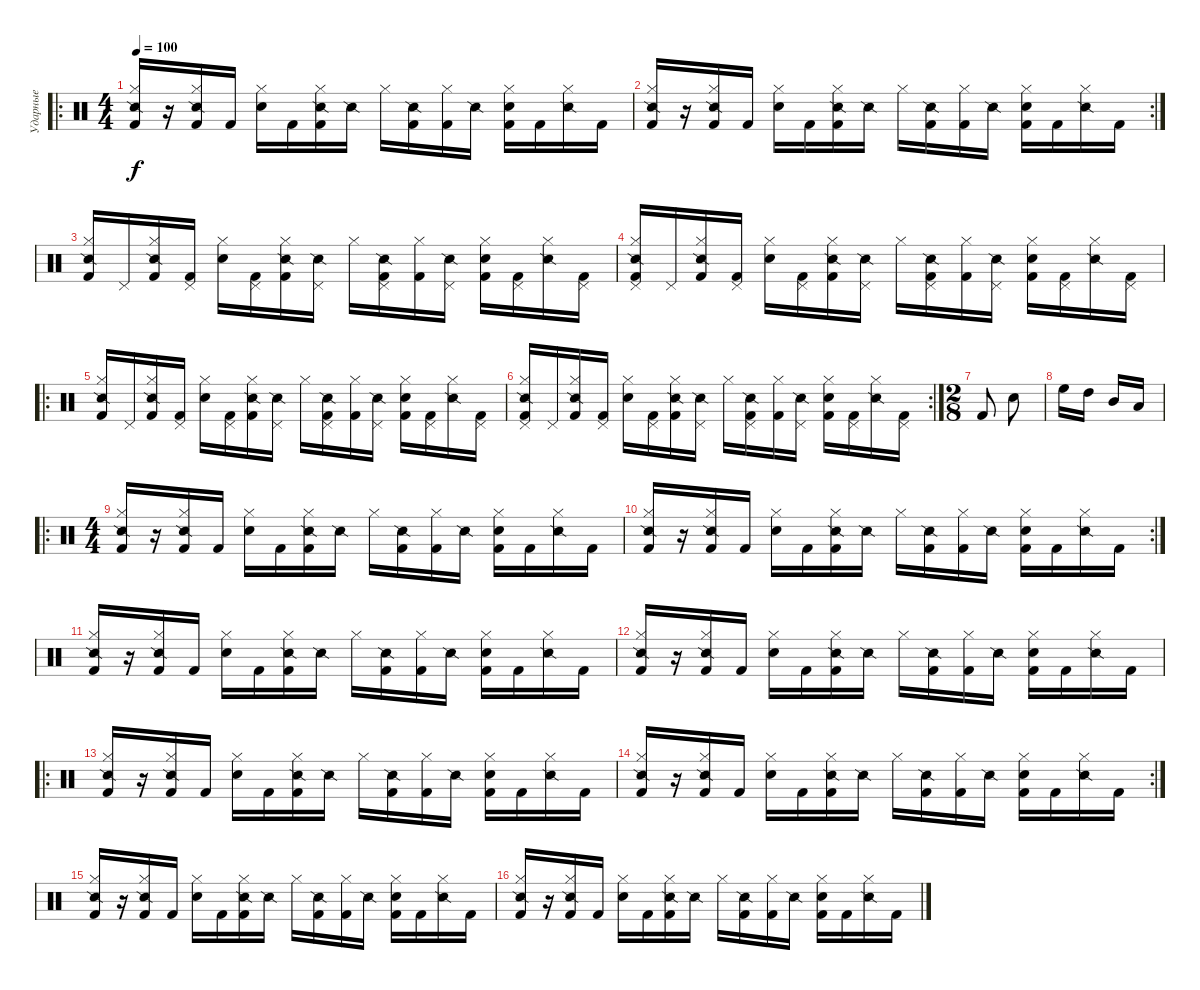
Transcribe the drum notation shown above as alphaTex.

\track ("Ударные" "Ударные") {instrument percussion}
\staff {score}
\articulation defaults
\ro
\ts (4 4)
\tempo 100
\clef neutral
\ks c
("Kick (hit) 2" "Hi-Hat (closed)" "Snare (side stick) 2").16{dy f} r.16 ("Kick (hit) 2" "Hi-Hat (closed)" "Snare (side stick) 2").16 "Kick (hit) 2".16 ("Snare (hit) 2" "Hi-Hat (closed)").16 "Kick (hit) 2".16 ("Kick (hit) 2" "Hi-Hat (closed)" "Snare (side stick) 2").16 "Snare (side stick) 2".16 "Hi-Hat (closed)".16 ("Kick (hit) 2" "Snare (side stick) 2").16 ("Kick (hit) 2" "Hi-Hat (closed)").16 "Snare (side stick) 2".16 ("Kick (hit) 2" "Snare (hit) 2" "Hi-Hat (closed)").16 "Kick (hit) 2".16 ("Hi-Hat (closed)" "Snare (side stick) 2").16 "Kick (hit) 2".16 |
\rc 2
("Kick (hit) 2" "Hi-Hat (closed)" "Snare (side stick) 2").16 r.16 ("Kick (hit) 2" "Hi-Hat (closed)" "Snare (side stick) 2").16 "Kick (hit) 2".16 ("Snare (hit) 2" "Hi-Hat (closed)").16 "Kick (hit) 2".16 ("Kick (hit) 2" "Hi-Hat (closed)" "Snare (side stick) 2").16 "Snare (side stick) 2".16 "Hi-Hat (closed)".16 ("Kick (hit) 2" "Snare (side stick) 2").16 ("Kick (hit) 2" "Hi-Hat (closed)").16 "Snare (side stick) 2".16 ("Kick (hit) 2" "Snare (hit) 2" "Hi-Hat (closed)").16 "Kick (hit) 2".16 ("Hi-Hat (closed)" "Snare (side stick) 2").16 "Kick (hit) 2".16 |
("Kick (hit) 2" "Hi-Hat (closed)" "Snare (side stick) 2").16 "Pedal Hi-Hat (hit)".16 ("Kick (hit) 2" "Hi-Hat (closed)" "Snare (side stick) 2").16 ("Kick (hit) 2" "Pedal Hi-Hat (hit)").16 ("Snare (hit) 2" "Hi-Hat (closed)").16 ("Kick (hit) 2" "Pedal Hi-Hat (hit)").16 ("Kick (hit) 2" "Hi-Hat (closed)" "Snare (side stick) 2").16 ("Pedal Hi-Hat (hit)" "Snare (side stick) 2").16 "Hi-Hat (closed)".16 ("Kick (hit) 2" "Pedal Hi-Hat (hit)" "Snare (side stick) 2").16 ("Kick (hit) 2" "Hi-Hat (closed)").16 ("Pedal Hi-Hat (hit)" "Snare (side stick) 2").16 ("Kick (hit) 2" "Snare (hit) 2" "Hi-Hat (closed)").16 ("Kick (hit) 2" "Pedal Hi-Hat (hit)").16 ("Hi-Hat (closed)" "Snare (side stick) 2").16 ("Kick (hit) 2" "Pedal Hi-Hat (hit)").16 |
("Kick (hit) 2" "Hi-Hat (closed)" "Snare (side stick) 2" "Pedal Hi-Hat (hit)").16 "Pedal Hi-Hat (hit)".16 ("Kick (hit) 2" "Hi-Hat (closed)" "Snare (side stick) 2").16 ("Kick (hit) 2" "Pedal Hi-Hat (hit)").16 ("Snare (hit) 2" "Hi-Hat (closed)").16 ("Kick (hit) 2" "Pedal Hi-Hat (hit)").16 ("Kick (hit) 2" "Hi-Hat (closed)" "Snare (side stick) 2").16 ("Pedal Hi-Hat (hit)" "Snare (side stick) 2").16 "Hi-Hat (closed)".16 ("Kick (hit) 2" "Pedal Hi-Hat (hit)" "Snare (side stick) 2").16 ("Kick (hit) 2" "Hi-Hat (closed)").16 ("Pedal Hi-Hat (hit)" "Snare (side stick) 2").16 ("Kick (hit) 2" "Snare (hit) 2" "Hi-Hat (closed)").16 ("Kick (hit) 2" "Pedal Hi-Hat (hit)").16 ("Hi-Hat (closed)" "Snare (side stick) 2").16 ("Kick (hit) 2" "Pedal Hi-Hat (hit)").16 |
\ro
("Kick (hit) 2" "Hi-Hat (closed)" "Snare (side stick) 2").16 "Pedal Hi-Hat (hit)".16 ("Kick (hit) 2" "Hi-Hat (closed)" "Snare (side stick) 2").16 ("Kick (hit) 2" "Pedal Hi-Hat (hit)").16 ("Snare (hit) 2" "Hi-Hat (closed)").16 ("Kick (hit) 2" "Pedal Hi-Hat (hit)").16 ("Kick (hit) 2" "Hi-Hat (closed)" "Snare (side stick) 2").16 ("Pedal Hi-Hat (hit)" "Snare (side stick) 2").16 "Hi-Hat (closed)".16 ("Kick (hit) 2" "Pedal Hi-Hat (hit)" "Snare (side stick) 2").16 ("Kick (hit) 2" "Hi-Hat (closed)").16 ("Pedal Hi-Hat (hit)" "Snare (side stick) 2").16 ("Kick (hit) 2" "Snare (hit) 2" "Hi-Hat (closed)").16 ("Kick (hit) 2" "Pedal Hi-Hat (hit)").16 ("Hi-Hat (closed)" "Snare (side stick) 2").16 ("Kick (hit) 2" "Pedal Hi-Hat (hit)").16 |
\rc 2
("Kick (hit) 2" "Hi-Hat (closed)" "Snare (side stick) 2" "Pedal Hi-Hat (hit)").16 "Pedal Hi-Hat (hit)".16 ("Kick (hit) 2" "Hi-Hat (closed)" "Snare (side stick) 2").16 ("Kick (hit) 2" "Pedal Hi-Hat (hit)").16 ("Snare (hit) 2" "Hi-Hat (closed)").16 ("Kick (hit) 2" "Pedal Hi-Hat (hit)").16 ("Kick (hit) 2" "Hi-Hat (closed)" "Snare (side stick) 2").16 ("Pedal Hi-Hat (hit)" "Snare (side stick) 2").16 "Hi-Hat (closed)".16 ("Kick (hit) 2" "Pedal Hi-Hat (hit)" "Snare (side stick) 2").16 ("Kick (hit) 2" "Hi-Hat (closed)").16 ("Pedal Hi-Hat (hit)" "Snare (side stick) 2").16 ("Kick (hit) 2" "Snare (hit) 2" "Hi-Hat (closed)").16 ("Kick (hit) 2" "Pedal Hi-Hat (hit)").16 ("Hi-Hat (closed)" "Snare (side stick) 2").16 ("Kick (hit) 2" "Pedal Hi-Hat (hit)").16 |
\ts (2 8)
"Kick (hit) 2".8 "Snare (hit) 2".8 |
"High Floor Tom (hit)".16 "High Tom (hit)".16 "Mid Tom (hit)".16 "Low Tom (hit)".16 |
\ro
\ts (4 4)
("Kick (hit) 2" "Hi-Hat (closed)" "Snare (side stick) 2").16 r.16 ("Kick (hit) 2" "Hi-Hat (closed)" "Snare (side stick) 2").16 "Kick (hit) 2".16 ("Snare (hit) 2" "Hi-Hat (closed)").16 "Kick (hit) 2".16 ("Kick (hit) 2" "Hi-Hat (closed)" "Snare (side stick) 2").16 "Snare (side stick) 2".16 "Hi-Hat (closed)".16 ("Kick (hit) 2" "Snare (side stick) 2").16 ("Kick (hit) 2" "Hi-Hat (closed)").16 "Snare (side stick) 2".16 ("Kick (hit) 2" "Snare (hit) 2" "Hi-Hat (closed)").16 "Kick (hit) 2".16 ("Hi-Hat (closed)" "Snare (side stick) 2").16 "Kick (hit) 2".16 |
\rc 2
("Kick (hit) 2" "Hi-Hat (closed)" "Snare (side stick) 2").16 r.16 ("Kick (hit) 2" "Hi-Hat (closed)" "Snare (side stick) 2").16 "Kick (hit) 2".16 ("Snare (hit) 2" "Hi-Hat (closed)").16 "Kick (hit) 2".16 ("Kick (hit) 2" "Hi-Hat (closed)" "Snare (side stick) 2").16 "Snare (side stick) 2".16 "Hi-Hat (closed)".16 ("Kick (hit) 2" "Snare (side stick) 2").16 ("Kick (hit) 2" "Hi-Hat (closed)").16 "Snare (side stick) 2".16 ("Kick (hit) 2" "Snare (hit) 2" "Hi-Hat (closed)").16 "Kick (hit) 2".16 ("Hi-Hat (closed)" "Snare (side stick) 2").16 "Kick (hit) 2".16 |
("Kick (hit) 2" "Hi-Hat (closed)" "Snare (side stick) 2").16 r.16 ("Kick (hit) 2" "Hi-Hat (closed)" "Snare (side stick) 2").16 "Kick (hit) 2".16 ("Snare (hit) 2" "Hi-Hat (closed)").16 "Kick (hit) 2".16 ("Kick (hit) 2" "Hi-Hat (closed)" "Snare (side stick) 2").16 "Snare (side stick) 2".16 "Hi-Hat (closed)".16 ("Kick (hit) 2" "Snare (side stick) 2").16 ("Kick (hit) 2" "Hi-Hat (closed)").16 "Snare (side stick) 2".16 ("Kick (hit) 2" "Snare (hit) 2" "Hi-Hat (closed)").16 "Kick (hit) 2".16 ("Hi-Hat (closed)" "Snare (side stick) 2").16 "Kick (hit) 2".16 |
("Kick (hit) 2" "Hi-Hat (closed)" "Snare (side stick) 2").16 r.16 ("Kick (hit) 2" "Hi-Hat (closed)" "Snare (side stick) 2").16 "Kick (hit) 2".16 ("Snare (hit) 2" "Hi-Hat (closed)").16 "Kick (hit) 2".16 ("Kick (hit) 2" "Hi-Hat (closed)" "Snare (side stick) 2").16 "Snare (side stick) 2".16 "Hi-Hat (closed)".16 ("Kick (hit) 2" "Snare (side stick) 2").16 ("Kick (hit) 2" "Hi-Hat (closed)").16 "Snare (side stick) 2".16 ("Kick (hit) 2" "Snare (hit) 2" "Hi-Hat (closed)").16 "Kick (hit) 2".16 ("Hi-Hat (closed)" "Snare (side stick) 2").16 "Kick (hit) 2".16 |
\ro
("Kick (hit) 2" "Hi-Hat (closed)" "Snare (side stick) 2").16 r.16 ("Kick (hit) 2" "Hi-Hat (closed)" "Snare (side stick) 2").16 "Kick (hit) 2".16 ("Snare (hit) 2" "Hi-Hat (closed)").16 "Kick (hit) 2".16 ("Kick (hit) 2" "Hi-Hat (closed)" "Snare (side stick) 2").16 "Snare (side stick) 2".16 "Hi-Hat (closed)".16 ("Kick (hit) 2" "Snare (side stick) 2").16 ("Kick (hit) 2" "Hi-Hat (closed)").16 "Snare (side stick) 2".16 ("Kick (hit) 2" "Snare (hit) 2" "Hi-Hat (closed)").16 "Kick (hit) 2".16 ("Hi-Hat (closed)" "Snare (side stick) 2").16 "Kick (hit) 2".16 |
\rc 2
("Kick (hit) 2" "Hi-Hat (closed)" "Snare (side stick) 2").16 r.16 ("Kick (hit) 2" "Hi-Hat (closed)" "Snare (side stick) 2").16 "Kick (hit) 2".16 ("Snare (hit) 2" "Hi-Hat (closed)").16 "Kick (hit) 2".16 ("Kick (hit) 2" "Hi-Hat (closed)" "Snare (side stick) 2").16 "Snare (side stick) 2".16 "Hi-Hat (closed)".16 ("Kick (hit) 2" "Snare (side stick) 2").16 ("Kick (hit) 2" "Hi-Hat (closed)").16 "Snare (side stick) 2".16 ("Kick (hit) 2" "Snare (hit) 2" "Hi-Hat (closed)").16 "Kick (hit) 2".16 ("Hi-Hat (closed)" "Snare (side stick) 2").16 "Kick (hit) 2".16 |
("Kick (hit) 2" "Hi-Hat (closed)" "Snare (side stick) 2").16 r.16 ("Kick (hit) 2" "Hi-Hat (closed)" "Snare (side stick) 2").16 "Kick (hit) 2".16 ("Snare (hit) 2" "Hi-Hat (closed)").16 "Kick (hit) 2".16 ("Kick (hit) 2" "Hi-Hat (closed)" "Snare (side stick) 2").16 "Snare (side stick) 2".16 "Hi-Hat (closed)".16 ("Kick (hit) 2" "Snare (side stick) 2").16 ("Kick (hit) 2" "Hi-Hat (closed)").16 "Snare (side stick) 2".16 ("Kick (hit) 2" "Snare (hit) 2" "Hi-Hat (closed)").16 "Kick (hit) 2".16 ("Hi-Hat (closed)" "Snare (side stick) 2").16 "Kick (hit) 2".16 |
("Kick (hit) 2" "Hi-Hat (closed)" "Snare (side stick) 2").16 r.16 ("Kick (hit) 2" "Hi-Hat (closed)" "Snare (side stick) 2").16 "Kick (hit) 2".16 ("Snare (hit) 2" "Hi-Hat (closed)").16 "Kick (hit) 2".16 ("Kick (hit) 2" "Hi-Hat (closed)" "Snare (side stick) 2").16 "Snare (side stick) 2".16 "Hi-Hat (closed)".16 ("Kick (hit) 2" "Snare (side stick) 2").16 ("Kick (hit) 2" "Hi-Hat (closed)").16 "Snare (side stick) 2".16 ("Kick (hit) 2" "Snare (hit) 2" "Hi-Hat (closed)").16 "Kick (hit) 2".16 ("Hi-Hat (closed)" "Snare (side stick) 2").16 "Kick (hit) 2".16
